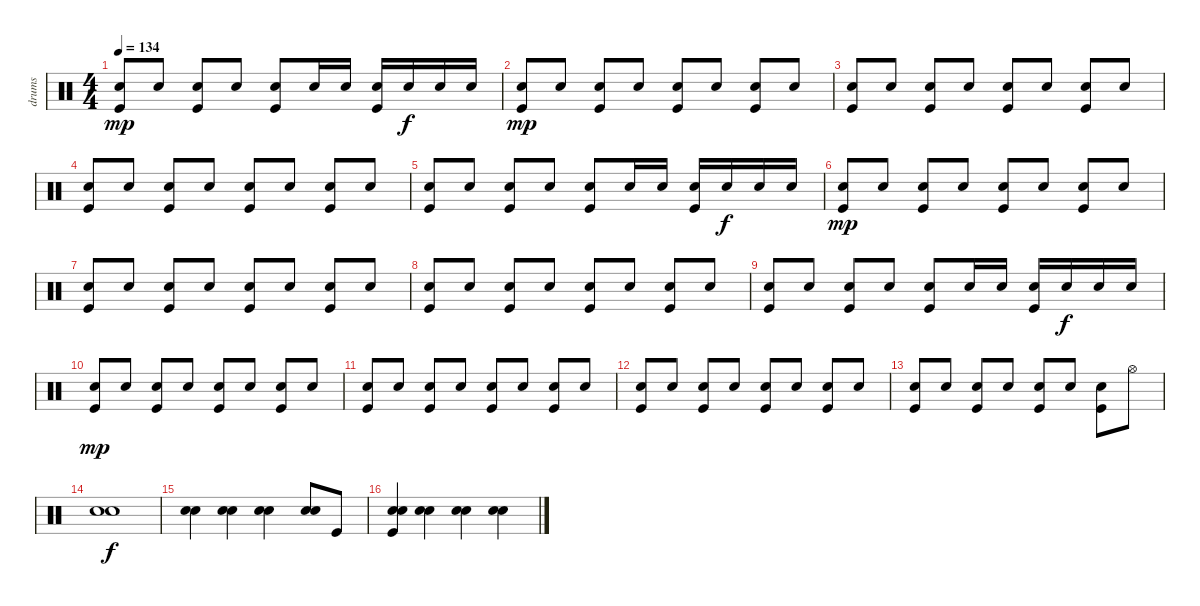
\track ("drums" "drums") {instrument percussion}
\staff {score}
\articulation defaults
\ts (4 4)
\tempo 134
\clef neutral
\ks c
("Snare (hit) 2" "Kick (hit)").8{dy mp} "Snare (hit) 2".8 ("Snare (hit) 2" "Kick (hit)").8 "Snare (hit) 2".8 ("Snare (hit) 2" "Kick (hit)").8 "Snare (hit) 2".16 "Snare (hit) 2".16 ("Snare (hit) 2" "Kick (hit)").16 "Snare (hit) 2".16{dy f} "Snare (hit) 2".16 "Snare (hit) 2".16 |
("Snare (hit) 2" "Kick (hit)").8{dy mp} "Snare (hit) 2".8 ("Snare (hit) 2" "Kick (hit)").8 "Snare (hit) 2".8 ("Snare (hit) 2" "Kick (hit)").8 "Snare (hit) 2".8 ("Snare (hit) 2" "Kick (hit)").8 "Snare (hit) 2".8 |
("Snare (hit) 2" "Kick (hit)").8 "Snare (hit) 2".8 ("Snare (hit) 2" "Kick (hit)").8 "Snare (hit) 2".8 ("Snare (hit) 2" "Kick (hit)").8 "Snare (hit) 2".8 ("Snare (hit) 2" "Kick (hit)").8 "Snare (hit) 2".8 |
("Snare (hit) 2" "Kick (hit)").8 "Snare (hit) 2".8 ("Snare (hit) 2" "Kick (hit)").8 "Snare (hit) 2".8 ("Snare (hit) 2" "Kick (hit)").8 "Snare (hit) 2".8 ("Snare (hit) 2" "Kick (hit)").8 "Snare (hit) 2".8 |
("Snare (hit) 2" "Kick (hit)").8 "Snare (hit) 2".8 ("Snare (hit) 2" "Kick (hit)").8 "Snare (hit) 2".8 ("Snare (hit) 2" "Kick (hit)").8 "Snare (hit) 2".16 "Snare (hit) 2".16 ("Snare (hit) 2" "Kick (hit)").16 "Snare (hit) 2".16{dy f} "Snare (hit) 2".16 "Snare (hit) 2".16 |
("Snare (hit) 2" "Kick (hit)").8{dy mp} "Snare (hit) 2".8 ("Snare (hit) 2" "Kick (hit)").8 "Snare (hit) 2".8 ("Snare (hit) 2" "Kick (hit)").8 "Snare (hit) 2".8 ("Snare (hit) 2" "Kick (hit)").8 "Snare (hit) 2".8 |
("Snare (hit) 2" "Kick (hit)").8 "Snare (hit) 2".8 ("Snare (hit) 2" "Kick (hit)").8 "Snare (hit) 2".8 ("Snare (hit) 2" "Kick (hit)").8 "Snare (hit) 2".8 ("Snare (hit) 2" "Kick (hit)").8 "Snare (hit) 2".8 |
("Snare (hit) 2" "Kick (hit)").8 "Snare (hit) 2".8 ("Snare (hit) 2" "Kick (hit)").8 "Snare (hit) 2".8 ("Snare (hit) 2" "Kick (hit)").8 "Snare (hit) 2".8 ("Snare (hit) 2" "Kick (hit)").8 "Snare (hit) 2".8 |
("Snare (hit) 2" "Kick (hit)").8 "Snare (hit) 2".8 ("Snare (hit) 2" "Kick (hit)").8 "Snare (hit) 2".8 ("Snare (hit) 2" "Kick (hit)").8 "Snare (hit) 2".16 "Snare (hit) 2".16 ("Snare (hit) 2" "Kick (hit)").16 "Snare (hit) 2".16{dy f} "Snare (hit) 2".16 "Snare (hit) 2".16 |
("Snare (hit) 2" "Kick (hit)").8{dy mp} "Snare (hit) 2".8 ("Snare (hit) 2" "Kick (hit)").8 "Snare (hit) 2".8 ("Snare (hit) 2" "Kick (hit)").8 "Snare (hit) 2".8 ("Snare (hit) 2" "Kick (hit)").8 "Snare (hit) 2".8 |
("Snare (hit) 2" "Kick (hit)").8 "Snare (hit) 2".8 ("Snare (hit) 2" "Kick (hit)").8 "Snare (hit) 2".8 ("Snare (hit) 2" "Kick (hit)").8 "Snare (hit) 2".8 ("Snare (hit) 2" "Kick (hit)").8 "Snare (hit) 2".8 |
("Snare (hit) 2" "Kick (hit)").8 "Snare (hit) 2".8 ("Snare (hit) 2" "Kick (hit)").8 "Snare (hit) 2".8 ("Snare (hit) 2" "Kick (hit)").8 "Snare (hit) 2".8 ("Snare (hit) 2" "Kick (hit)").8 "Snare (hit) 2".8 |
("Snare (hit) 2" "Kick (hit)").8 "Snare (hit) 2".8 ("Snare (hit) 2" "Kick (hit)").8 "Snare (hit) 2".8 ("Snare (hit) 2" "Kick (hit)").8 "Snare (hit) 2".8 ("Snare (hit) 2" "Kick (hit)").8 "Hi-Hat (open)".8 |
("Snare (hit) 2" "Snare (hit) 2").1{dy f} |
("Snare (hit) 2" "Snare (hit) 2").4 ("Snare (hit) 2" "Snare (hit) 2").4 ("Snare (hit) 2" "Snare (hit) 2").4 ("Snare (hit) 2" "Snare (hit) 2").8 "Kick (hit)".8 |
("Snare (hit) 2" "Snare (hit) 2" "Kick (hit)").4 ("Snare (hit) 2" "Snare (hit) 2").4 ("Snare (hit) 2" "Snare (hit) 2").4 ("Snare (hit) 2" "Snare (hit) 2").4
